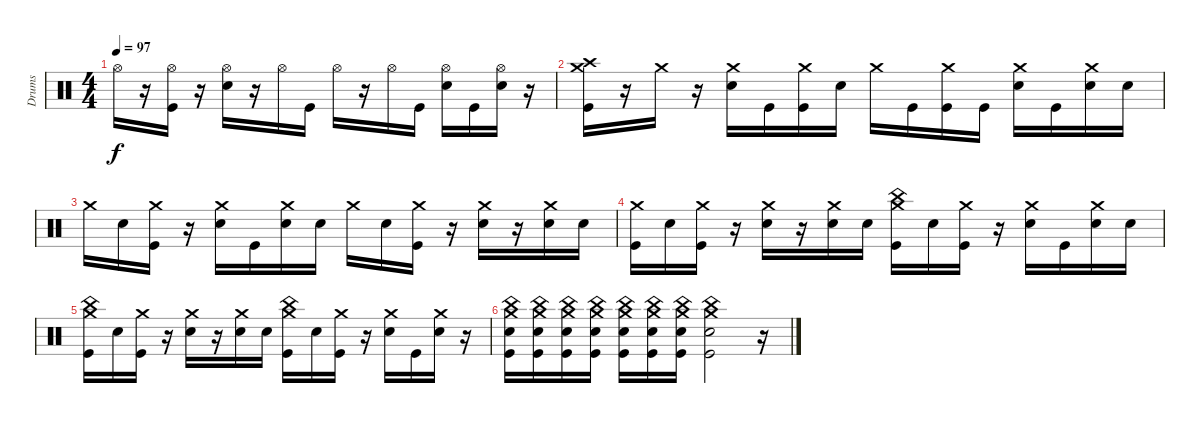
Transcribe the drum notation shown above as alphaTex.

\track ("Drums" "Drums") {instrument percussion}
\staff {score}
\articulation defaults
\ts (4 4)
\tempo 97
\clef neutral
\ks c "Hi-Hat (open)".16{dy f}
r.16 ("Hi-Hat (open)" "Kick (hit)").16 r.16 ("Hi-Hat (open)" "Electric Snare (hit)").16 r.16 "Hi-Hat (open)".16 "Kick (hit)".16 "Hi-Hat (open)".16 r.16 "Hi-Hat (open)".16 "Kick (hit)".16 ("Hi-Hat (open)" "Electric Snare (hit)").16 "Kick (hit)".16 ("Hi-Hat (open)" "Electric Snare (hit)").16 r.16 |
("Crash high (hit)" "Crash medium (hit)" "Kick (hit)").16 r.16 "Crash medium (hit)".16 r.16 ("Crash medium (hit)" "Electric Snare (hit)").16 "Kick (hit)".16 ("Crash medium (hit)" "Kick (hit)").16 "Electric Snare (hit)".16 "Crash medium (hit)".16 "Kick (hit)".16 ("Crash medium (hit)" "Kick (hit)").16 "Kick (hit)".16 ("Crash medium (hit)" "Electric Snare (hit)").16 "Kick (hit)".16 ("Crash medium (hit)" "Electric Snare (hit)").16 "Electric Snare (hit)".16 |
"Crash medium (hit)".16 "Electric Snare (hit)".16 ("Crash medium (hit)" "Kick (hit)").16 r.16 ("Crash medium (hit)" "Electric Snare (hit)").16 "Kick (hit)".16 ("Crash medium (hit)" "Electric Snare (hit)").16 "Electric Snare (hit)".16 "Crash medium (hit)".16 "Electric Snare (hit)".16 ("Crash medium (hit)" "Kick (hit)").16 r.16 ("Crash medium (hit)" "Electric Snare (hit)").16 r.16 ("Crash medium (hit)" "Electric Snare (hit)").16 "Electric Snare (hit)".16 |
("Crash medium (hit)" "Kick (hit)").16 "Electric Snare (hit)".16 ("Crash medium (hit)" "Kick (hit)").16 r.16 ("Crash medium (hit)" "Electric Snare (hit)").16 r.16 ("Crash medium (hit)" "Electric Snare (hit)").16 "Electric Snare (hit)".16 ("China (hit)" "Crash medium (hit)" "Kick (hit)").16 "Electric Snare (hit)".16 ("Crash medium (hit)" "Kick (hit)").16 r.16 ("Crash medium (hit)" "Electric Snare (hit)").16 "Kick (hit)".16 ("Crash medium (hit)" "Electric Snare (hit)").16 "Electric Snare (hit)".16 |
("China (hit)" "Crash medium (hit)" "Kick (hit)").16 "Electric Snare (hit)".16 ("Crash medium (hit)" "Kick (hit)").16 r.16 ("Crash medium (hit)" "Electric Snare (hit)").16 r.16 ("Crash medium (hit)" "Electric Snare (hit)").16 "Electric Snare (hit)".16 ("China (hit)" "Crash medium (hit)" "Kick (hit)").16 "Electric Snare (hit)".16 ("Crash medium (hit)" "Kick (hit)").16 r.16 ("Crash medium (hit)" "Electric Snare (hit)").16 "Kick (hit)".16 ("Crash medium (hit)" "Electric Snare (hit)").16 r.16 |
("China (hit)" "Crash medium (hit)" "Electric Snare (hit)" "Kick (hit)").16 ("China (hit)" "Crash medium (hit)" "Electric Snare (hit)" "Kick (hit)").16 ("China (hit)" "Crash medium (hit)" "Electric Snare (hit)" "Kick (hit)").16 ("China (hit)" "Crash medium (hit)" "Electric Snare (hit)" "Kick (hit)").16 ("China (hit)" "Crash medium (hit)" "Electric Snare (hit)" "Kick (hit)").16 ("China (hit)" "Crash medium (hit)" "Electric Snare (hit)" "Kick (hit)").16 ("China (hit)" "Crash medium (hit)" "Electric Snare (hit)" "Kick (hit)").16 ("China (hit)" "Crash medium (hit)" "Electric Snare (hit)" "Kick (hit)").2 r.16
